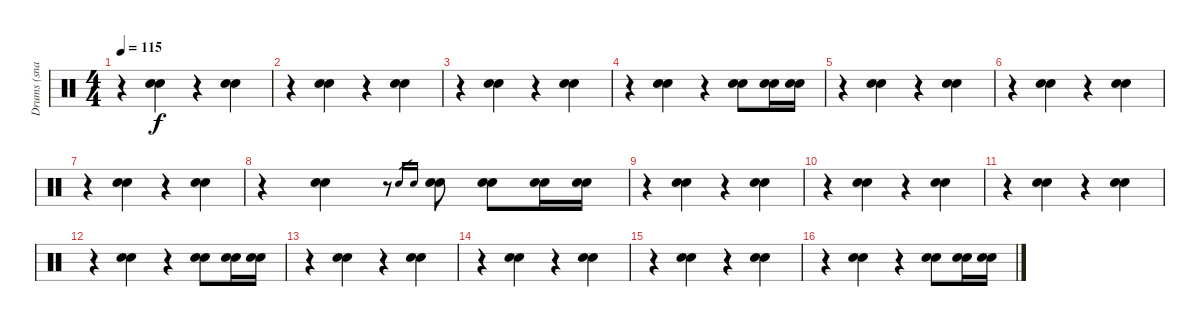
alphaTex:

\track ("Drums (snare drum)" "Drums (sna") {instrument percussion}
\staff {score}
\articulation defaults
\ts (4 4)
\tempo 115
\clef neutral
\ks c
r.4{dy f} ("Electric Snare (hit)" "Snare (hit) 2").4 r.4 ("Electric Snare (hit)" "Snare (hit) 2").4 |
r.4 ("Electric Snare (hit)" "Snare (hit) 2").4 r.4 ("Electric Snare (hit)" "Snare (hit) 2").4 |
r.4 ("Electric Snare (hit)" "Snare (hit) 2").4 r.4 ("Electric Snare (hit)" "Snare (hit) 2").4 |
r.4 ("Electric Snare (hit)" "Snare (hit) 2").4 r.4 ("Electric Snare (hit)" "Snare (hit) 2").8 ("Electric Snare (hit)" "Snare (hit) 2").16 ("Electric Snare (hit)" "Snare (hit) 2").16 |
r.4 ("Electric Snare (hit)" "Snare (hit) 2").4 r.4 ("Electric Snare (hit)" "Snare (hit) 2").4 |
r.4 ("Electric Snare (hit)" "Snare (hit) 2").4 r.4 ("Electric Snare (hit)" "Snare (hit) 2").4 |
r.4 ("Electric Snare (hit)" "Snare (hit) 2").4 r.4 ("Electric Snare (hit)" "Snare (hit) 2").4 |
r.4 ("Electric Snare (hit)" "Snare (hit) 2").4 r.8 "Electric Snare (hit)".16{gr} "Snare (hit) 2".16{gr} ("Electric Snare (hit)" "Snare (hit) 2").8 ("Electric Snare (hit)" "Snare (hit) 2").8 ("Electric Snare (hit)" "Snare (hit) 2").16 ("Electric Snare (hit)" "Snare (hit) 2").16 |
r.4 ("Electric Snare (hit)" "Snare (hit) 2").4 r.4 ("Electric Snare (hit)" "Snare (hit) 2").4 |
r.4 ("Electric Snare (hit)" "Snare (hit) 2").4 r.4 ("Electric Snare (hit)" "Snare (hit) 2").4 |
r.4 ("Electric Snare (hit)" "Snare (hit) 2").4 r.4 ("Electric Snare (hit)" "Snare (hit) 2").4 |
r.4 ("Electric Snare (hit)" "Snare (hit) 2").4 r.4 ("Electric Snare (hit)" "Snare (hit) 2").8 ("Electric Snare (hit)" "Snare (hit) 2").16 ("Electric Snare (hit)" "Snare (hit) 2").16 |
r.4 ("Electric Snare (hit)" "Snare (hit) 2").4 r.4 ("Electric Snare (hit)" "Snare (hit) 2").4 |
r.4 ("Electric Snare (hit)" "Snare (hit) 2").4 r.4 ("Electric Snare (hit)" "Snare (hit) 2").4 |
r.4 ("Electric Snare (hit)" "Snare (hit) 2").4 r.4 ("Electric Snare (hit)" "Snare (hit) 2").4 |
r.4 ("Electric Snare (hit)" "Snare (hit) 2").4 r.4 ("Electric Snare (hit)" "Snare (hit) 2").8 ("Electric Snare (hit)" "Snare (hit) 2").16 ("Electric Snare (hit)" "Snare (hit) 2").16
